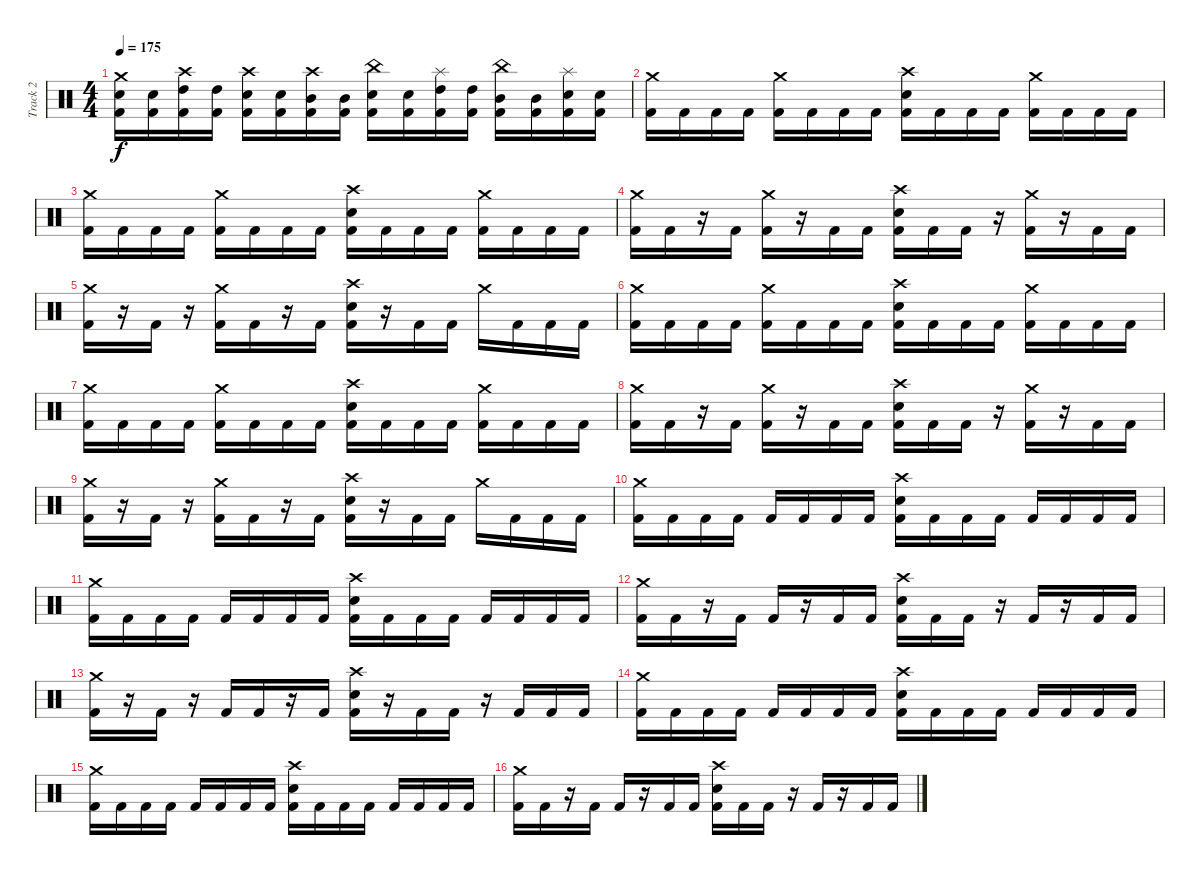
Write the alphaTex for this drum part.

\track ("Track 2" "Track 2") {instrument percussion}
\staff {score}
\articulation defaults
\ts (4 4)
\tempo 175
\clef neutral
\ks c
("Crash medium (hit)" "Electric Snare (hit)" "Kick (hit) 2").16{dy f} ("Electric Snare (hit)" "Kick (hit) 2").16 ("Crash high (hit)" "High Tom (hit)" "Kick (hit) 2").16 ("High Tom (hit)" "Kick (hit) 2").16 ("Crash high (hit)" "Electric Snare (hit)" "Kick (hit) 2").16 ("Electric Snare (hit)" "Kick (hit) 2").16 ("Crash high (hit)" "Mid Tom (hit)" "Kick (hit) 2").16 ("Mid Tom (hit)" "Kick (hit) 2").16 ("China (hit)" "Electric Snare (hit)" "Kick (hit) 2").16 ("Electric Snare (hit)" "Kick (hit) 2").16 ("Splash (hit)" "High Tom (hit)" "Kick (hit) 2").16 ("High Tom (hit)" "Kick (hit) 2").16 ("China (hit)" "Mid Tom (hit)" "Kick (hit) 2").16 ("Mid Tom (hit)" "Kick (hit) 2").16 ("Splash (hit)" "Electric Snare (hit)" "Kick (hit) 2").16 ("Electric Snare (hit)" "Kick (hit) 2").16 |
("Crash medium (hit)" "Kick (hit) 2").16 "Kick (hit) 2".16 "Kick (hit) 2".16 "Kick (hit) 2".16 ("Crash medium (hit)" "Kick (hit) 2").16 "Kick (hit) 2".16 "Kick (hit) 2".16 "Kick (hit) 2".16 ("Crash high (hit)" "Electric Snare (hit)" "Kick (hit) 2").16 "Kick (hit) 2".16 "Kick (hit) 2".16 "Kick (hit) 2".16 ("Crash medium (hit)" "Kick (hit) 2").16 "Kick (hit) 2".16 "Kick (hit) 2".16 "Kick (hit) 2".16 |
("Crash medium (hit)" "Kick (hit) 2").16 "Kick (hit) 2".16 "Kick (hit) 2".16 "Kick (hit) 2".16 ("Crash medium (hit)" "Kick (hit) 2").16 "Kick (hit) 2".16 "Kick (hit) 2".16 "Kick (hit) 2".16 ("Crash high (hit)" "Electric Snare (hit)" "Kick (hit) 2").16 "Kick (hit) 2".16 "Kick (hit) 2".16 "Kick (hit) 2".16 ("Crash medium (hit)" "Kick (hit) 2").16 "Kick (hit) 2".16 "Kick (hit) 2".16 "Kick (hit) 2".16 |
("Crash medium (hit)" "Kick (hit) 2").16 "Kick (hit) 2".16 r.16 "Kick (hit) 2".16 ("Crash medium (hit)" "Kick (hit) 2").16 r.16 "Kick (hit) 2".16 "Kick (hit) 2".16 ("Crash high (hit)" "Electric Snare (hit)" "Kick (hit) 2").16 "Kick (hit) 2".16 "Kick (hit) 2".16 r.16 ("Crash medium (hit)" "Kick (hit) 2").16 r.16 "Kick (hit) 2".16 "Kick (hit) 2".16 |
("Crash medium (hit)" "Kick (hit) 2").16 r.16 "Kick (hit) 2".16 r.16 ("Crash medium (hit)" "Kick (hit) 2").16 "Kick (hit) 2".16 r.16 "Kick (hit) 2".16 ("Crash high (hit)" "Electric Snare (hit)" "Kick (hit) 2").16 r.16 "Kick (hit) 2".16 "Kick (hit) 2".16 "Crash medium (hit)".16 "Kick (hit) 2".16 "Kick (hit) 2".16 "Kick (hit) 2".16 |
("Crash medium (hit)" "Kick (hit) 2").16 "Kick (hit) 2".16 "Kick (hit) 2".16 "Kick (hit) 2".16 ("Crash medium (hit)" "Kick (hit) 2").16 "Kick (hit) 2".16 "Kick (hit) 2".16 "Kick (hit) 2".16 ("Crash high (hit)" "Electric Snare (hit)" "Kick (hit) 2").16 "Kick (hit) 2".16 "Kick (hit) 2".16 "Kick (hit) 2".16 ("Crash medium (hit)" "Kick (hit) 2").16 "Kick (hit) 2".16 "Kick (hit) 2".16 "Kick (hit) 2".16 |
("Crash medium (hit)" "Kick (hit) 2").16 "Kick (hit) 2".16 "Kick (hit) 2".16 "Kick (hit) 2".16 ("Crash medium (hit)" "Kick (hit) 2").16 "Kick (hit) 2".16 "Kick (hit) 2".16 "Kick (hit) 2".16 ("Crash high (hit)" "Electric Snare (hit)" "Kick (hit) 2").16 "Kick (hit) 2".16 "Kick (hit) 2".16 "Kick (hit) 2".16 ("Crash medium (hit)" "Kick (hit) 2").16 "Kick (hit) 2".16 "Kick (hit) 2".16 "Kick (hit) 2".16 |
("Crash medium (hit)" "Kick (hit) 2").16 "Kick (hit) 2".16 r.16 "Kick (hit) 2".16 ("Crash medium (hit)" "Kick (hit) 2").16 r.16 "Kick (hit) 2".16 "Kick (hit) 2".16 ("Crash high (hit)" "Electric Snare (hit)" "Kick (hit) 2").16 "Kick (hit) 2".16 "Kick (hit) 2".16 r.16 ("Crash medium (hit)" "Kick (hit) 2").16 r.16 "Kick (hit) 2".16 "Kick (hit) 2".16 |
("Crash medium (hit)" "Kick (hit) 2").16 r.16 "Kick (hit) 2".16 r.16 ("Crash medium (hit)" "Kick (hit) 2").16 "Kick (hit) 2".16 r.16 "Kick (hit) 2".16 ("Crash high (hit)" "Electric Snare (hit)" "Kick (hit) 2").16 r.16 "Kick (hit) 2".16 "Kick (hit) 2".16 "Crash medium (hit)".16 "Kick (hit) 2".16 "Kick (hit) 2".16 "Kick (hit) 2".16 |
("Crash medium (hit)" "Kick (hit) 2").16 "Kick (hit) 2".16 "Kick (hit) 2".16 "Kick (hit) 2".16 "Kick (hit) 2".16 "Kick (hit) 2".16 "Kick (hit) 2".16 "Kick (hit) 2".16 ("Crash high (hit)" "Electric Snare (hit)" "Kick (hit) 2").16 "Kick (hit) 2".16 "Kick (hit) 2".16 "Kick (hit) 2".16 "Kick (hit) 2".16 "Kick (hit) 2".16 "Kick (hit) 2".16 "Kick (hit) 2".16 |
("Crash medium (hit)" "Kick (hit) 2").16 "Kick (hit) 2".16 "Kick (hit) 2".16 "Kick (hit) 2".16 "Kick (hit) 2".16 "Kick (hit) 2".16 "Kick (hit) 2".16 "Kick (hit) 2".16 ("Crash high (hit)" "Electric Snare (hit)" "Kick (hit) 2").16 "Kick (hit) 2".16 "Kick (hit) 2".16 "Kick (hit) 2".16 "Kick (hit) 2".16 "Kick (hit) 2".16 "Kick (hit) 2".16 "Kick (hit) 2".16 |
("Crash medium (hit)" "Kick (hit) 2").16 "Kick (hit) 2".16 r.16 "Kick (hit) 2".16 "Kick (hit) 2".16 r.16 "Kick (hit) 2".16 "Kick (hit) 2".16 ("Crash high (hit)" "Electric Snare (hit)" "Kick (hit) 2").16 "Kick (hit) 2".16 "Kick (hit) 2".16 r.16 "Kick (hit) 2".16 r.16 "Kick (hit) 2".16 "Kick (hit) 2".16 |
("Crash medium (hit)" "Kick (hit) 2").16 r.16 "Kick (hit) 2".16 r.16 "Kick (hit) 2".16 "Kick (hit) 2".16 r.16 "Kick (hit) 2".16 ("Crash high (hit)" "Electric Snare (hit)" "Kick (hit) 2").16 r.16 "Kick (hit) 2".16 "Kick (hit) 2".16 r.16 "Kick (hit) 2".16 "Kick (hit) 2".16 "Kick (hit) 2".16 |
("Crash medium (hit)" "Kick (hit) 2").16 "Kick (hit) 2".16 "Kick (hit) 2".16 "Kick (hit) 2".16 "Kick (hit) 2".16 "Kick (hit) 2".16 "Kick (hit) 2".16 "Kick (hit) 2".16 ("Crash high (hit)" "Electric Snare (hit)" "Kick (hit) 2").16 "Kick (hit) 2".16 "Kick (hit) 2".16 "Kick (hit) 2".16 "Kick (hit) 2".16 "Kick (hit) 2".16 "Kick (hit) 2".16 "Kick (hit) 2".16 |
("Crash medium (hit)" "Kick (hit) 2").16 "Kick (hit) 2".16 "Kick (hit) 2".16 "Kick (hit) 2".16 "Kick (hit) 2".16 "Kick (hit) 2".16 "Kick (hit) 2".16 "Kick (hit) 2".16 ("Crash high (hit)" "Electric Snare (hit)" "Kick (hit) 2").16 "Kick (hit) 2".16 "Kick (hit) 2".16 "Kick (hit) 2".16 "Kick (hit) 2".16 "Kick (hit) 2".16 "Kick (hit) 2".16 "Kick (hit) 2".16 |
("Crash medium (hit)" "Kick (hit) 2").16 "Kick (hit) 2".16 r.16 "Kick (hit) 2".16 "Kick (hit) 2".16 r.16 "Kick (hit) 2".16 "Kick (hit) 2".16 ("Crash high (hit)" "Electric Snare (hit)" "Kick (hit) 2").16 "Kick (hit) 2".16 "Kick (hit) 2".16 r.16 "Kick (hit) 2".16 r.16 "Kick (hit) 2".16 "Kick (hit) 2".16
